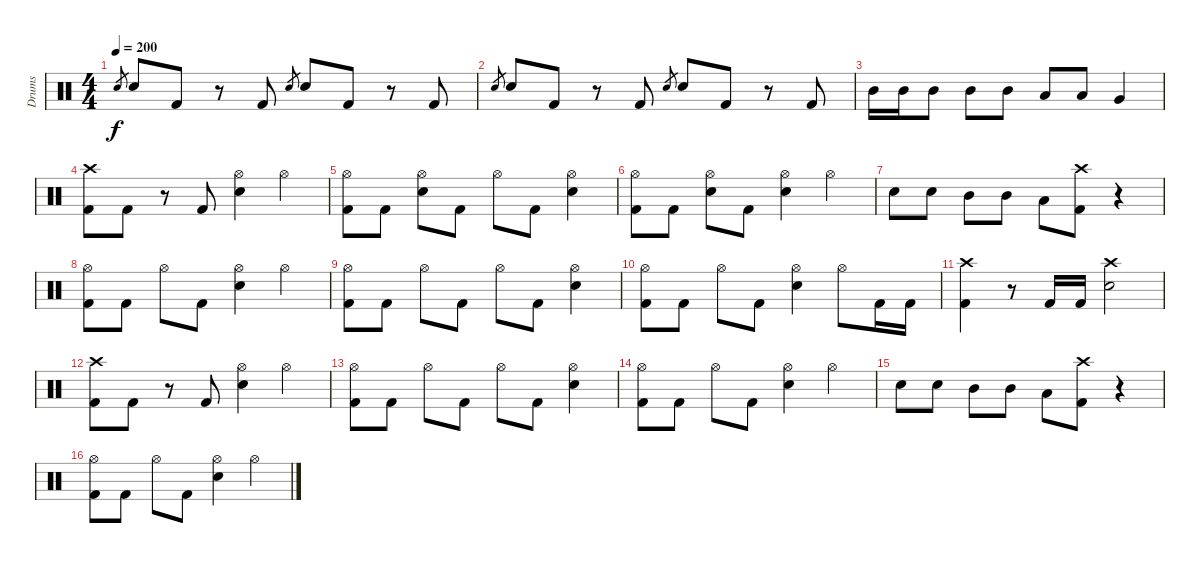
\track ("Drums" "Drums") {instrument percussion}
\staff {score}
\articulation defaults
\ts (4 4)
\tempo 200
\clef neutral
\ks c "Electric Snare (hit)".8{gr dy f} "Electric Snare (hit)".8 "Kick (hit) 2".8
r.8 "Kick (hit) 2".8 "Electric Snare (hit)".8{gr} "Electric Snare (hit)".8 "Kick (hit) 2".8 r.8 "Kick (hit) 2".8 |
"Electric Snare (hit)".8{gr} "Electric Snare (hit)".8 "Kick (hit) 2".8 r.8 "Kick (hit) 2".8 "Electric Snare (hit)".8{gr} "Electric Snare (hit)".8 "Kick (hit) 2".8 r.8 "Kick (hit) 2".8 |
"Mid Tom (hit)".16 "Mid Tom (hit)".16 "Mid Tom (hit)".8 "Mid Tom (hit)".8 "Mid Tom (hit)".8 "Low Tom (hit)".8 "Low Tom (hit)".8 "Very Low Tom (hit)".4 |
("Crash high (hit)" "Kick (hit) 2").8 "Kick (hit) 2".8 r.8 "Kick (hit) 2".8 ("Hi-Hat (open)" "Electric Snare (hit)").4 "Hi-Hat (open)".4 |
("Hi-Hat (open)" "Kick (hit) 2").8 "Kick (hit) 2".8 ("Hi-Hat (open)" "Electric Snare (hit)").8 "Kick (hit) 2".8 "Hi-Hat (open)".8 "Kick (hit) 2".8 ("Hi-Hat (open)" "Electric Snare (hit)").4 |
("Hi-Hat (open)" "Kick (hit) 2").8 "Kick (hit) 2".8 ("Hi-Hat (open)" "Electric Snare (hit)").8 "Kick (hit) 2".8 ("Hi-Hat (open)" "Electric Snare (hit)").4 "Hi-Hat (open)".4 |
"Electric Snare (hit)".8 "Electric Snare (hit)".8 "Mid Tom (hit)".8 "Mid Tom (hit)".8 "Low Tom (hit)".8 ("Crash high (hit)" "Kick (hit) 2").8 r.4 |
("Hi-Hat (open)" "Kick (hit) 2").8 "Kick (hit) 2".8 "Hi-Hat (open)".8 "Kick (hit) 2".8 ("Hi-Hat (open)" "Electric Snare (hit)").4 "Hi-Hat (open)".4 |
("Hi-Hat (open)" "Kick (hit) 2").8 "Kick (hit) 2".8 "Hi-Hat (open)".8 "Kick (hit) 2".8 "Hi-Hat (open)".8 "Kick (hit) 2".8 ("Hi-Hat (open)" "Electric Snare (hit)").4 |
("Hi-Hat (open)" "Kick (hit) 2").8 "Kick (hit) 2".8 "Hi-Hat (open)".8 "Kick (hit) 2".8 ("Hi-Hat (open)" "Electric Snare (hit)").4 "Hi-Hat (open)".8 "Kick (hit) 2".16 "Kick (hit) 2".16 |
("Crash high (hit)" "Kick (hit) 2").4 r.8 "Kick (hit) 2".16 "Kick (hit) 2".16 ("Crash high (hit)" "Electric Snare (hit)").2 |
("Crash high (hit)" "Kick (hit) 2").8 "Kick (hit) 2".8 r.8 "Kick (hit) 2".8 ("Hi-Hat (open)" "Electric Snare (hit)").4 "Hi-Hat (open)".4 |
("Hi-Hat (open)" "Kick (hit) 2").8 "Kick (hit) 2".8 "Hi-Hat (open)".8 "Kick (hit) 2".8 "Hi-Hat (open)".8 "Kick (hit) 2".8 ("Hi-Hat (open)" "Electric Snare (hit)").4 |
("Hi-Hat (open)" "Kick (hit) 2").8 "Kick (hit) 2".8 "Hi-Hat (open)".8 "Kick (hit) 2".8 ("Hi-Hat (open)" "Electric Snare (hit)").4 "Hi-Hat (open)".4 |
"Electric Snare (hit)".8 "Electric Snare (hit)".8 "Mid Tom (hit)".8 "Mid Tom (hit)".8 "Low Tom (hit)".8 ("Crash high (hit)" "Kick (hit) 2").8 r.4 |
("Hi-Hat (open)" "Kick (hit) 2").8 "Kick (hit) 2".8 "Hi-Hat (open)".8 "Kick (hit) 2".8 ("Hi-Hat (open)" "Electric Snare (hit)").4 "Hi-Hat (open)".4
